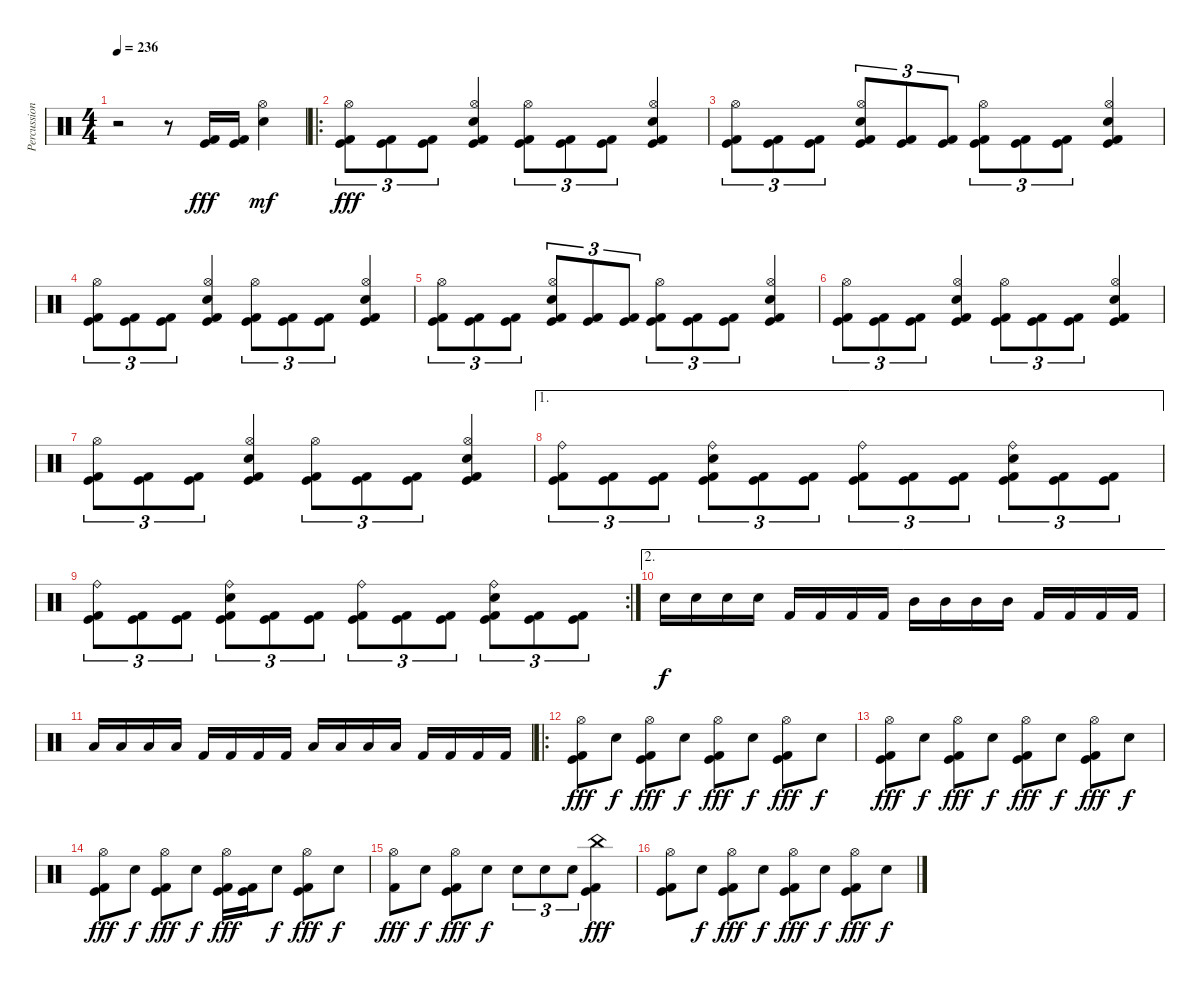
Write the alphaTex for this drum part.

\track ("Percussion" "Percussion") {instrument percussion}
\staff {score}
\articulation defaults
\ts (4 4)
\tempo 236
\clef neutral
\ks c
r.2{dy fff} r.8 ("Kick (hit)" "Kick (hit) 2").16 ("Kick (hit)" "Kick (hit) 2").16 ("Hi-Hat (open)" "Electric Snare (hit)").4{dy mf} |
\ro
("Kick (hit)" "Hi-Hat (open)" "Kick (hit) 2").8{tu (3 2) dy fff} ("Kick (hit)" "Kick (hit) 2").8{tu (3 2)} ("Kick (hit)" "Kick (hit) 2").8{tu (3 2)} ("Kick (hit)" "Electric Snare (hit)" "Hi-Hat (open)" "Kick (hit) 2").4 ("Kick (hit)" "Hi-Hat (open)" "Kick (hit) 2").8{tu (3 2)} ("Kick (hit)" "Kick (hit) 2").8{tu (3 2)} ("Kick (hit)" "Kick (hit) 2").8{tu (3 2)} ("Kick (hit)" "Electric Snare (hit)" "Hi-Hat (open)" "Kick (hit) 2").4 |
("Kick (hit)" "Hi-Hat (open)" "Kick (hit) 2").8{tu (3 2)} ("Kick (hit)" "Kick (hit) 2").8{tu (3 2)} ("Kick (hit)" "Kick (hit) 2").8{tu (3 2)} ("Kick (hit)" "Electric Snare (hit)" "Hi-Hat (open)" "Kick (hit) 2").8{tu (3 2)} ("Kick (hit)" "Kick (hit) 2").8{tu (3 2)} ("Kick (hit)" "Kick (hit) 2").8{tu (3 2)} ("Kick (hit)" "Hi-Hat (open)" "Kick (hit) 2").8{tu (3 2)} ("Kick (hit)" "Kick (hit) 2").8{tu (3 2)} ("Kick (hit)" "Kick (hit) 2").8{tu (3 2)} ("Kick (hit)" "Electric Snare (hit)" "Hi-Hat (open)" "Kick (hit) 2").4 |
("Kick (hit)" "Hi-Hat (open)" "Kick (hit) 2").8{tu (3 2)} ("Kick (hit)" "Kick (hit) 2").8{tu (3 2)} ("Kick (hit)" "Kick (hit) 2").8{tu (3 2)} ("Kick (hit)" "Electric Snare (hit)" "Hi-Hat (open)" "Kick (hit) 2").4 ("Kick (hit)" "Hi-Hat (open)" "Kick (hit) 2").8{tu (3 2)} ("Kick (hit)" "Kick (hit) 2").8{tu (3 2)} ("Kick (hit)" "Kick (hit) 2").8{tu (3 2)} ("Kick (hit)" "Electric Snare (hit)" "Hi-Hat (open)" "Kick (hit) 2").4 |
("Kick (hit)" "Hi-Hat (open)" "Kick (hit) 2").8{tu (3 2)} ("Kick (hit)" "Kick (hit) 2").8{tu (3 2)} ("Kick (hit)" "Kick (hit) 2").8{tu (3 2)} ("Kick (hit)" "Electric Snare (hit)" "Hi-Hat (open)" "Kick (hit) 2").8{tu (3 2)} ("Kick (hit)" "Kick (hit) 2").8{tu (3 2)} ("Kick (hit)" "Kick (hit) 2").8{tu (3 2)} ("Kick (hit)" "Hi-Hat (open)" "Kick (hit) 2").8{tu (3 2)} ("Kick (hit)" "Kick (hit) 2").8{tu (3 2)} ("Kick (hit)" "Kick (hit) 2").8{tu (3 2)} ("Kick (hit)" "Electric Snare (hit)" "Hi-Hat (open)" "Kick (hit) 2").4 |
("Kick (hit)" "Hi-Hat (open)" "Kick (hit) 2").8{tu (3 2)} ("Kick (hit)" "Kick (hit) 2").8{tu (3 2)} ("Kick (hit)" "Kick (hit) 2").8{tu (3 2)} ("Kick (hit)" "Electric Snare (hit)" "Hi-Hat (open)" "Kick (hit) 2").4 ("Kick (hit)" "Hi-Hat (open)" "Kick (hit) 2").8{tu (3 2)} ("Kick (hit)" "Kick (hit) 2").8{tu (3 2)} ("Kick (hit)" "Kick (hit) 2").8{tu (3 2)} ("Kick (hit)" "Electric Snare (hit)" "Hi-Hat (open)" "Kick (hit) 2").4 |
("Kick (hit)" "Hi-Hat (open)" "Kick (hit) 2").8{tu (3 2)} ("Kick (hit)" "Kick (hit) 2").8{tu (3 2)} ("Kick (hit)" "Kick (hit) 2").8{tu (3 2)} ("Kick (hit)" "Electric Snare (hit)" "Hi-Hat (open)" "Kick (hit) 2").4 ("Kick (hit)" "Hi-Hat (open)" "Kick (hit) 2").8{tu (3 2)} ("Kick (hit)" "Kick (hit) 2").8{tu (3 2)} ("Kick (hit)" "Kick (hit) 2").8{tu (3 2)} ("Kick (hit)" "Electric Snare (hit)" "Hi-Hat (open)" "Kick (hit) 2").4 |
\ae 1
("Kick (hit)" "Ride (bell)" "Kick (hit) 2").8{tu (3 2)} ("Kick (hit)" "Kick (hit) 2").8{tu (3 2)} ("Kick (hit)" "Kick (hit) 2").8{tu (3 2)} ("Kick (hit)" "Electric Snare (hit)" "Ride (bell)" "Kick (hit) 2").8{tu (3 2)} ("Kick (hit)" "Kick (hit) 2").8{tu (3 2)} ("Kick (hit)" "Kick (hit) 2").8{tu (3 2)} ("Kick (hit)" "Ride (bell)" "Kick (hit) 2").8{tu (3 2)} ("Kick (hit)" "Kick (hit) 2").8{tu (3 2)} ("Kick (hit)" "Kick (hit) 2").8{tu (3 2)} ("Kick (hit)" "Electric Snare (hit)" "Ride (bell)" "Kick (hit) 2").8{tu (3 2)} ("Kick (hit)" "Kick (hit) 2").8{tu (3 2)} ("Kick (hit)" "Kick (hit) 2").8{tu (3 2)} |
\rc 2
("Kick (hit)" "Ride (bell)" "Kick (hit) 2").8{tu (3 2)} ("Kick (hit)" "Kick (hit) 2").8{tu (3 2)} ("Kick (hit)" "Kick (hit) 2").8{tu (3 2)} ("Kick (hit)" "Electric Snare (hit)" "Ride (bell)" "Kick (hit) 2").8{tu (3 2)} ("Kick (hit)" "Kick (hit) 2").8{tu (3 2)} ("Kick (hit)" "Kick (hit) 2").8{tu (3 2)} ("Kick (hit)" "Ride (bell)" "Kick (hit) 2").8{tu (3 2)} ("Kick (hit)" "Kick (hit) 2").8{tu (3 2)} ("Kick (hit)" "Kick (hit) 2").8{tu (3 2)} ("Kick (hit)" "Electric Snare (hit)" "Ride (bell)" "Kick (hit) 2").8{tu (3 2)} ("Kick (hit)" "Kick (hit) 2").8{tu (3 2)} ("Kick (hit)" "Kick (hit) 2").8{tu (3 2)} |
\ae 2 "Electric Snare (hit)".16{dy f} "Electric Snare (hit)".16 "Electric Snare (hit)".16 "Electric Snare (hit)".16 "Kick (hit) 2".16 "Kick (hit) 2".16 "Kick (hit) 2".16 "Kick (hit) 2".16 "Mid Tom (hit)".16 "Mid Tom (hit)".16 "Mid Tom (hit)".16 "Mid Tom (hit)".16 "Kick (hit) 2".16 "Kick (hit) 2".16 "Kick (hit) 2".16 "Kick (hit) 2".16
|
"Low Tom (hit)".16 "Low Tom (hit)".16 "Low Tom (hit)".16 "Low Tom (hit)".16 "Kick (hit) 2".16 "Kick (hit) 2".16 "Kick (hit) 2".16 "Kick (hit) 2".16 "Low Floor Tom (hit)".16 "Low Floor Tom (hit)".16 "Low Floor Tom (hit)".16 "Low Floor Tom (hit)".16 "Kick (hit) 2".16 "Kick (hit) 2".16 "Kick (hit) 2".16 "Kick (hit) 2".16 |
\ro
("Kick (hit)" "Hi-Hat (open)" "Kick (hit) 2").8{dy fff} "Electric Snare (hit)".8{dy f} ("Kick (hit)" "Hi-Hat (open)" "Kick (hit) 2").8{dy fff} "Electric Snare (hit)".8{dy f} ("Kick (hit)" "Hi-Hat (open)" "Kick (hit) 2").8{dy fff} "Electric Snare (hit)".8{dy f} ("Kick (hit)" "Hi-Hat (open)" "Kick (hit) 2").8{dy fff} "Electric Snare (hit)".8{dy f} |
("Kick (hit)" "Hi-Hat (open)" "Kick (hit) 2").8{dy fff} "Electric Snare (hit)".8{dy f} ("Kick (hit)" "Hi-Hat (open)" "Kick (hit) 2").8{dy fff} "Electric Snare (hit)".8{dy f} ("Kick (hit)" "Hi-Hat (open)" "Kick (hit) 2").8{dy fff} "Electric Snare (hit)".8{dy f} ("Kick (hit)" "Hi-Hat (open)" "Kick (hit) 2").8{dy fff} "Electric Snare (hit)".8{dy f} |
("Kick (hit)" "Hi-Hat (open)" "Kick (hit) 2").8{dy fff} "Electric Snare (hit)".8{dy f} ("Kick (hit)" "Hi-Hat (open)" "Kick (hit) 2").8{dy fff} "Electric Snare (hit)".8{dy f} ("Kick (hit)" "Hi-Hat (open)" "Kick (hit) 2").16{dy fff} ("Kick (hit)" "Kick (hit) 2").16 "Electric Snare (hit)".8{dy f} ("Kick (hit)" "Hi-Hat (open)" "Kick (hit) 2").8{dy fff} "Electric Snare (hit)".8{dy f} |
("Hi-Hat (open)" "Kick (hit) 2").8{dy fff} "Electric Snare (hit)".8{dy f} ("Kick (hit)" "Hi-Hat (open)" "Kick (hit) 2").8{dy fff} "Electric Snare (hit)".8{dy f} "Electric Snare (hit)".8{tu (3 2)} "Electric Snare (hit)".8{tu (3 2)} "Electric Snare (hit)".8{tu (3 2)} ("Kick (hit)" "China (hit)" "Kick (hit) 2").4{dy fff} |
("Kick (hit)" "Kick (hit) 2" "Hi-Hat (open)").8 "Electric Snare (hit)".8{dy f} ("Kick (hit) 2" "Kick (hit)" "Hi-Hat (open)").8{dy fff} "Electric Snare (hit)".8{dy f} ("Kick (hit)" "Kick (hit) 2" "Hi-Hat (open)").8{dy fff} "Electric Snare (hit)".8{dy f} ("Kick (hit)" "Kick (hit) 2" "Hi-Hat (open)").8{dy fff} "Electric Snare (hit)".8{dy f}
